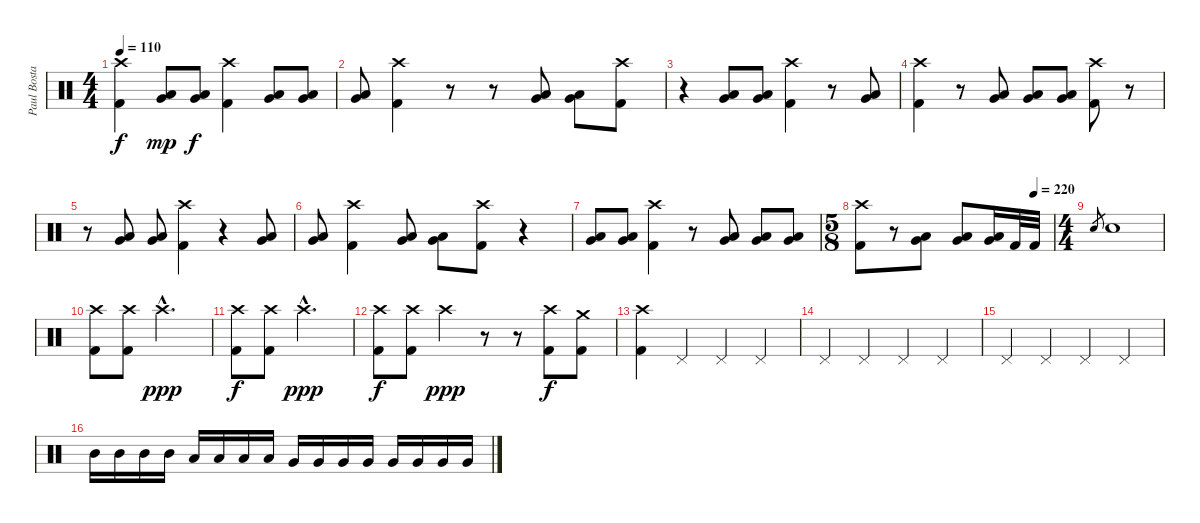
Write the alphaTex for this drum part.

\track ("Paul Bostaph" "Paul Bosta") {instrument percussion}
\staff {score}
\articulation defaults
\ts (4 4)
\tempo 110
\clef neutral
\ks c
("Crash high (hit)" "Kick (hit) 2").4{dy f} ("Very Low Tom (hit)" "Low Floor Tom (hit)").8{dy mp} ("Low Floor Tom (hit)" "Very Low Tom (hit)").8{dy f} ("Crash high (hit)" "Kick (hit) 2").4 ("Low Floor Tom (hit)" "Very Low Tom (hit)").8 ("Very Low Tom (hit)" "Low Floor Tom (hit)").8 |
("Low Floor Tom (hit)" "Very Low Tom (hit)").8 ("Crash high (hit)" "Kick (hit) 2").4 r.8 r.8 ("Very Low Tom (hit)" "Low Floor Tom (hit)").8 ("Low Floor Tom (hit)" "Very Low Tom (hit)").8 ("Crash high (hit)" "Kick (hit) 2").8 |
r.4 ("Very Low Tom (hit)" "Low Floor Tom (hit)").8 ("Very Low Tom (hit)" "Low Floor Tom (hit)").8 ("Crash high (hit)" "Kick (hit) 2").4 r.8 ("Low Floor Tom (hit)" "Very Low Tom (hit)").8 |
("Kick (hit) 2" "Crash high (hit)").4 r.8 ("Low Floor Tom (hit)" "Very Low Tom (hit)").8 ("Low Floor Tom (hit)" "Very Low Tom (hit)").8 ("Very Low Tom (hit)" "Low Floor Tom (hit)").8 ("Crash high (hit)" "Kick (hit) 2").8 r.8 |
r.8 ("Low Floor Tom (hit)" "Very Low Tom (hit)").8 ("Low Floor Tom (hit)" "Very Low Tom (hit)").8 ("Kick (hit) 2" "Crash high (hit)").4 r.4 ("Low Floor Tom (hit)" "Very Low Tom (hit)").8 |
("Low Floor Tom (hit)" "Very Low Tom (hit)").8 ("Crash high (hit)" "Kick (hit) 2").4 ("Very Low Tom (hit)" "Low Floor Tom (hit)").8 ("Very Low Tom (hit)" "Low Floor Tom (hit)").8 ("Crash high (hit)" "Kick (hit) 2").8 r.4 |
("Very Low Tom (hit)" "Low Floor Tom (hit)").8 ("Low Floor Tom (hit)" "Very Low Tom (hit)").8 ("Crash high (hit)" "Kick (hit) 2").4 r.8 ("Very Low Tom (hit)" "Low Floor Tom (hit)").8 ("Very Low Tom (hit)" "Low Floor Tom (hit)").8 ("Very Low Tom (hit)" "Low Floor Tom (hit)").8 |
\ts (5 8)
\tempo (220 0.9)
("Kick (hit) 2" "Crash high (hit)").8 r.8 ("Low Floor Tom (hit)" "Very Low Tom (hit)").8 ("Low Floor Tom (hit)" "Very Low Tom (hit)").8 ("Low Floor Tom (hit)" "Very Low Tom (hit)").16 "Kick (hit) 2".32 "Kick (hit) 2".32 |
\ts (4 4)
"Electric Snare (hit)".8{gr} "Electric Snare (hit)".1 |
("Crash high (hit)" "Kick (hit) 2").8 ("Crash high (hit)" "Kick (hit) 2").8 "Crash high (hit)"{hac}.2{d dy ppp} |
("Crash high (hit)" "Kick (hit) 2").8{dy f} ("Crash high (hit)" "Kick (hit) 2").8 "Crash high (hit)"{hac}.2{d dy ppp} |
("Crash high (hit)" "Kick (hit) 2").8{dy f} ("Crash high (hit)" "Kick (hit) 2").8 "Crash high (hit)".4{dy ppp} r.8 r.8 ("Crash high (hit)" "Kick (hit) 2").8{dy f} ("Crash medium (hit)" "Kick (hit) 2").8 |
("Crash high (hit)" "Kick (hit) 2").4 "Pedal Hi-Hat (hit)".4 "Pedal Hi-Hat (hit)".4 "Pedal Hi-Hat (hit)".4 |
"Pedal Hi-Hat (hit)".4 "Pedal Hi-Hat (hit)".4 "Pedal Hi-Hat (hit)".4 "Pedal Hi-Hat (hit)".4 |
"Pedal Hi-Hat (hit)".4 "Pedal Hi-Hat (hit)".4 "Pedal Hi-Hat (hit)".4 "Pedal Hi-Hat (hit)".4 |
"Mid Tom (hit)".16 "Mid Tom (hit)".16 "Mid Tom (hit)".16 "Mid Tom (hit)".16 "Low Tom (hit)".16 "Low Tom (hit)".16 "Low Tom (hit)".16 "Low Tom (hit)".16 "Very Low Tom (hit)".16 "Very Low Tom (hit)".16 "Very Low Tom (hit)".16 "Very Low Tom (hit)".16 "Very Low Tom (hit)".16 "Very Low Tom (hit)".16 "Very Low Tom (hit)".16 "Very Low Tom (hit)".16
